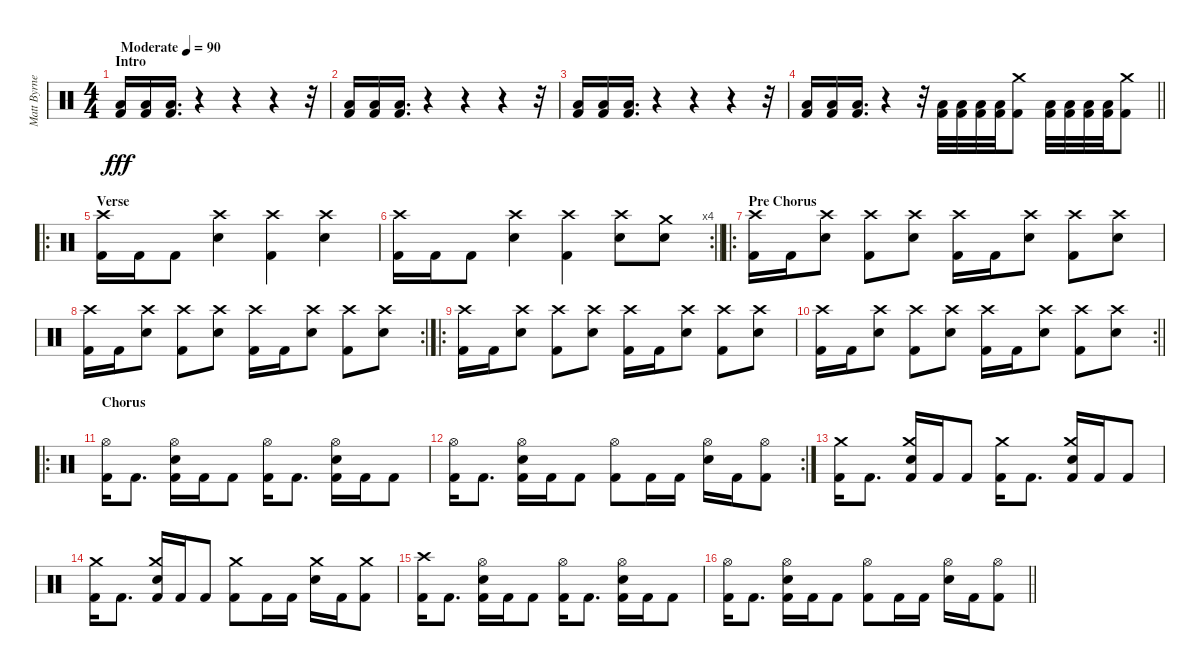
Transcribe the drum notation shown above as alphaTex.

\track ("Matt Byrne" "Matt Byrne") {instrument percussion}
\staff {score}
\articulation defaults
\ts (4 4)
\section ("" "Intro")
\tempo (90 "Moderate")
\clef neutral
\ks c
("Kick (hit) 2" "Low Tom (hit)").16{dy fff} ("Kick (hit) 2" "Low Tom (hit)").16 ("Kick (hit) 2" "Low Tom (hit)").16{d} r.4 r.4 r.4 r.32 |
("Kick (hit) 2" "Low Tom (hit)").16 ("Kick (hit) 2" "Low Tom (hit)").16 ("Kick (hit) 2" "Low Tom (hit)").16{d} r.4 r.4 r.4 r.32 |
("Kick (hit) 2" "Low Tom (hit)").16 ("Kick (hit) 2" "Low Tom (hit)").16 ("Kick (hit) 2" "Low Tom (hit)").16{d} r.4 r.4 r.4 r.32 |
\barLineRight lightlight
("Kick (hit) 2" "Low Tom (hit)").16 ("Kick (hit) 2" "Low Tom (hit)").16 ("Kick (hit) 2" "Low Tom (hit)").16{d} r.4 r.32 ("Kick (hit) 2" "Low Tom (hit)").32 ("Kick (hit) 2" "Low Tom (hit)").32 ("Kick (hit) 2" "Low Tom (hit)").32 ("Kick (hit) 2" "Low Tom (hit)").32 ("Kick (hit) 2" "Crash medium (hit)").8 ("Kick (hit) 2" "Low Tom (hit)").32 ("Kick (hit) 2" "Low Tom (hit)").32 ("Kick (hit) 2" "Low Tom (hit)").32 ("Kick (hit) 2" "Low Tom (hit)").32 ("Kick (hit) 2" "Crash medium (hit)").8 |
\ro
\section ("" "Verse")
("Crash high (hit)" "Kick (hit) 2").16 "Kick (hit) 2".16 "Kick (hit) 2".8 ("Crash high (hit)" "Snare (hit) 2").4 ("Crash high (hit)" "Kick (hit) 2").4 ("Crash high (hit)" "Snare (hit) 2").4 |
\rc 4
\barLineRight lightlight
("Crash high (hit)" "Kick (hit) 2").16 "Kick (hit) 2".16 "Kick (hit) 2".8 ("Crash high (hit)" "Snare (hit) 2").4 ("Crash high (hit)" "Kick (hit) 2").4 ("Crash high (hit)" "Snare (hit) 2").8 ("Crash medium (hit)" "Snare (hit) 2").8 |
\ro
\section ("" "Pre Chorus")
("Crash high (hit)" "Kick (hit) 2").16 "Kick (hit) 2".16 ("Crash high (hit)" "Snare (hit) 2").8 ("Crash high (hit)" "Kick (hit) 2").8 ("Crash high (hit)" "Snare (hit) 2").8 ("Crash high (hit)" "Kick (hit) 2").16 "Kick (hit) 2".16 ("Crash high (hit)" "Snare (hit) 2").8 ("Crash high (hit)" "Kick (hit) 2").8 ("Crash high (hit)" "Snare (hit) 2").8 |
\rc 2
("Crash high (hit)" "Kick (hit) 2").16 "Kick (hit) 2".16 ("Crash high (hit)" "Snare (hit) 2").8 ("Crash high (hit)" "Kick (hit) 2").8 ("Crash high (hit)" "Snare (hit) 2").8 ("Crash high (hit)" "Kick (hit) 2").16 "Kick (hit) 2".16 ("Crash high (hit)" "Snare (hit) 2").8 ("Crash high (hit)" "Kick (hit) 2").8 ("Crash high (hit)" "Snare (hit) 2").8 |
\ro
("Crash high (hit)" "Kick (hit) 2").16 "Kick (hit) 2".16 ("Crash high (hit)" "Snare (hit) 2").8 ("Crash high (hit)" "Kick (hit) 2").8 ("Crash high (hit)" "Snare (hit) 2").8 ("Crash high (hit)" "Kick (hit) 2").16 "Kick (hit) 2".16 ("Crash high (hit)" "Snare (hit) 2").8 ("Crash high (hit)" "Kick (hit) 2").8 ("Crash high (hit)" "Snare (hit) 2").8 |
\rc 2
\barLineRight lightlight
("Crash high (hit)" "Kick (hit) 2").16 "Kick (hit) 2".16 ("Crash high (hit)" "Snare (hit) 2").8 ("Crash high (hit)" "Kick (hit) 2").8 ("Crash high (hit)" "Snare (hit) 2").8 ("Crash high (hit)" "Kick (hit) 2").16 "Kick (hit) 2".16 ("Crash high (hit)" "Snare (hit) 2").8 ("Crash high (hit)" "Kick (hit) 2").8 ("Crash high (hit)" "Snare (hit) 2").8 |
\ro
\section ("" "Chorus")
("Hi-Hat (open)" "Kick (hit) 2").16 "Kick (hit) 2".8{d} ("Kick (hit) 2" "Hi-Hat (open)" "Snare (hit) 2").16 "Kick (hit) 2".16 "Kick (hit) 2".8 ("Hi-Hat (open)" "Kick (hit) 2").16 "Kick (hit) 2".8{d} ("Kick (hit) 2" "Hi-Hat (open)" "Snare (hit) 2").16 "Kick (hit) 2".16 "Kick (hit) 2".8 |
\rc 2
("Hi-Hat (open)" "Kick (hit) 2").16 "Kick (hit) 2".8{d} ("Kick (hit) 2" "Hi-Hat (open)" "Snare (hit) 2").16 "Kick (hit) 2".16 "Kick (hit) 2".8 ("Hi-Hat (open)" "Kick (hit) 2").8 "Kick (hit) 2".16 "Kick (hit) 2".16 ("Hi-Hat (open)" "Snare (hit) 2").16 "Kick (hit) 2".16 ("Hi-Hat (open)" "Kick (hit) 2").8 |
("Crash medium (hit)" "Kick (hit) 2").16 "Kick (hit) 2".8{d} ("Kick (hit) 2" "Crash medium (hit)" "Snare (hit) 2").16 "Kick (hit) 2".16 "Kick (hit) 2".8 ("Crash medium (hit)" "Kick (hit) 2").16 "Kick (hit) 2".8{d} ("Kick (hit) 2" "Crash medium (hit)" "Snare (hit) 2").16 "Kick (hit) 2".16 "Kick (hit) 2".8 |
("Crash medium (hit)" "Kick (hit) 2").16 "Kick (hit) 2".8{d} ("Kick (hit) 2" "Crash medium (hit)" "Snare (hit) 2").16 "Kick (hit) 2".16 "Kick (hit) 2".8 ("Crash medium (hit)" "Kick (hit) 2").8 "Kick (hit) 2".16 "Kick (hit) 2".16 ("Crash medium (hit)" "Snare (hit) 2").16 "Kick (hit) 2".16 ("Crash medium (hit)" "Kick (hit) 2").8 |
("Crash high (hit)" "Kick (hit) 2").16 "Kick (hit) 2".8{d} ("Kick (hit) 2" "Hi-Hat (open)" "Snare (hit) 2").16 "Kick (hit) 2".16 "Kick (hit) 2".8 ("Hi-Hat (open)" "Kick (hit) 2").16 "Kick (hit) 2".8{d} ("Kick (hit) 2" "Hi-Hat (open)" "Snare (hit) 2").16 "Kick (hit) 2".16 "Kick (hit) 2".8 |
\barLineRight lightlight
("Hi-Hat (open)" "Kick (hit) 2").16 "Kick (hit) 2".8{d} ("Kick (hit) 2" "Hi-Hat (open)" "Snare (hit) 2").16 "Kick (hit) 2".16 "Kick (hit) 2".8 ("Hi-Hat (open)" "Kick (hit) 2").8 "Kick (hit) 2".16 "Kick (hit) 2".16 ("Hi-Hat (open)" "Snare (hit) 2").16 "Kick (hit) 2".16 ("Hi-Hat (open)" "Kick (hit) 2").8
